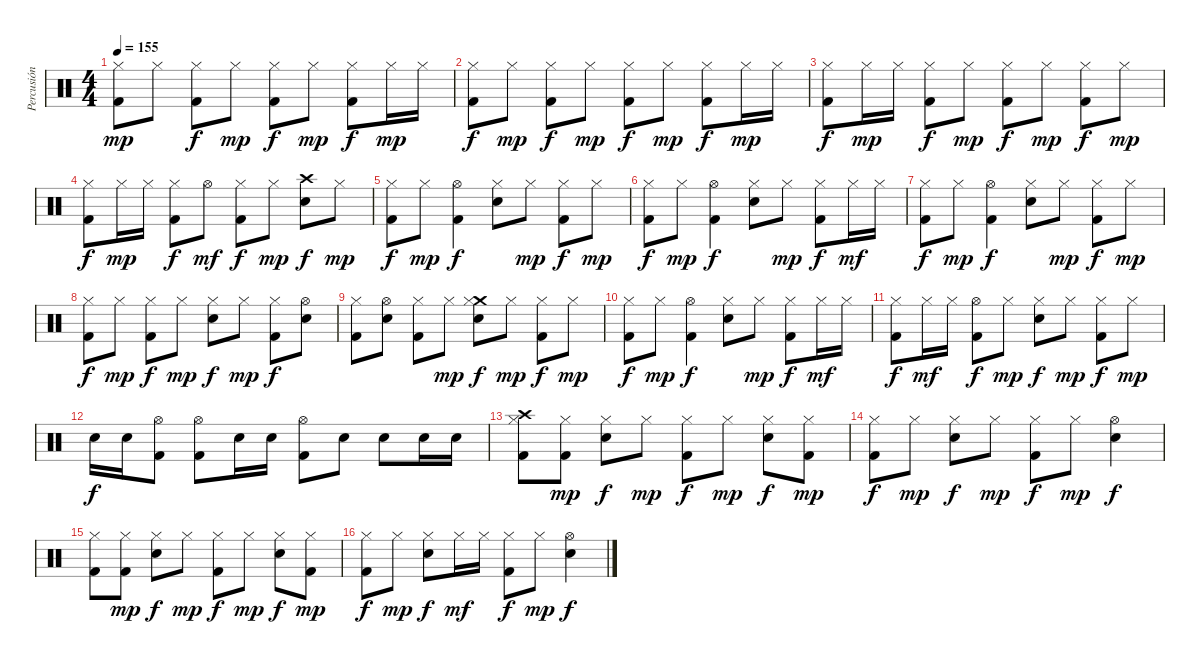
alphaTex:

\track ("Percusión" "Percusión") {instrument percussion}
\staff {score}
\articulation defaults
\ts (4 4)
\tempo 155
\clef neutral
\ks c
("Hi-Hat (closed)" "Kick (hit) 2").8{dy mp} "Hi-Hat (closed)".8 ("Hi-Hat (closed)" "Kick (hit) 2").8{dy f} "Hi-Hat (closed)".8{dy mp} ("Hi-Hat (closed)" "Kick (hit) 2").8{dy f} "Hi-Hat (closed)".8{dy mp} ("Hi-Hat (closed)" "Kick (hit) 2").8{dy f} "Hi-Hat (closed)".16{dy mp} "Hi-Hat (closed)".16 |
("Hi-Hat (closed)" "Kick (hit) 2").8{dy f} "Hi-Hat (closed)".8{dy mp} ("Hi-Hat (closed)" "Kick (hit) 2").8{dy f} "Hi-Hat (closed)".8{dy mp} ("Hi-Hat (closed)" "Kick (hit) 2").8{dy f} "Hi-Hat (closed)".8{dy mp} ("Hi-Hat (closed)" "Kick (hit) 2").8{dy f} "Hi-Hat (closed)".16{dy mp} "Hi-Hat (closed)".16 |
("Hi-Hat (closed)" "Kick (hit) 2").8{dy f} "Hi-Hat (closed)".16{dy mp} "Hi-Hat (closed)".16 ("Hi-Hat (closed)" "Kick (hit) 2").8{dy f} "Hi-Hat (closed)".8{dy mp} ("Hi-Hat (closed)" "Kick (hit) 2").8{dy f} "Hi-Hat (closed)".8{dy mp} ("Hi-Hat (closed)" "Kick (hit) 2").8{dy f} "Hi-Hat (closed)".8{dy mp} |
("Hi-Hat (closed)" "Kick (hit) 2").8{dy f} "Hi-Hat (closed)".16{dy mp} "Hi-Hat (closed)".16 ("Hi-Hat (closed)" "Kick (hit) 2").8{dy f} "Hi-Hat (open)".8{dy mf} ("Hi-Hat (closed)" "Kick (hit) 2").8{dy f} "Hi-Hat (closed)".8{dy mp} ("Crash high (hit)" "Snare (hit) 2").8{dy f} "Hi-Hat (closed)".8{dy mp} |
("Hi-Hat (closed)" "Kick (hit) 2").8{dy f} "Hi-Hat (closed)".8{dy mp} ("Hi-Hat (open)" "Kick (hit) 2").4{dy f} ("Hi-Hat (closed)" "Snare (hit) 2").8 "Hi-Hat (closed)".8{dy mp} ("Hi-Hat (closed)" "Kick (hit) 2").8{dy f} "Hi-Hat (closed)".8{dy mp} |
("Hi-Hat (closed)" "Kick (hit) 2").8{dy f} "Hi-Hat (closed)".8{dy mp} ("Hi-Hat (open)" "Kick (hit) 2").4{dy f} ("Hi-Hat (closed)" "Snare (hit) 2").8 "Hi-Hat (closed)".8{dy mp} ("Hi-Hat (closed)" "Kick (hit) 2").8{dy f} "Hi-Hat (closed)".16{dy mf} "Hi-Hat (closed)".16 |
("Hi-Hat (closed)" "Kick (hit) 2").8{dy f} "Hi-Hat (closed)".8{dy mp} ("Hi-Hat (open)" "Kick (hit) 2").4{dy f} ("Hi-Hat (closed)" "Snare (hit) 2").8 "Hi-Hat (closed)".8{dy mp} ("Hi-Hat (closed)" "Kick (hit) 2").8{dy f} "Hi-Hat (closed)".8{dy mp} |
("Hi-Hat (closed)" "Kick (hit) 2").8{dy f} "Hi-Hat (closed)".8{dy mp} ("Hi-Hat (closed)" "Kick (hit) 2").8{dy f} "Hi-Hat (closed)".8{dy mp} ("Hi-Hat (closed)" "Snare (hit) 2").8{dy f} "Hi-Hat (closed)".8{dy mp} ("Hi-Hat (closed)" "Kick (hit) 2").8{dy f} ("Hi-Hat (open)" "Snare (hit) 2").8 |
("Hi-Hat (closed)" "Kick (hit) 2").8 ("Hi-Hat (open)" "Snare (hit) 2").8 ("Hi-Hat (closed)" "Kick (hit) 2").8 "Hi-Hat (closed)".8{dy mp} ("Crash medium (hit)" "Hi-Hat (closed)" "Snare (hit) 2").8{dy f} "Hi-Hat (closed)".8{dy mp} ("Hi-Hat (closed)" "Kick (hit) 2").8{dy f} "Hi-Hat (closed)".8{dy mp} |
("Hi-Hat (closed)" "Kick (hit) 2").8{dy f} "Hi-Hat (closed)".8{dy mp} ("Hi-Hat (open)" "Kick (hit) 2").4{dy f} ("Hi-Hat (closed)" "Snare (hit) 2").8 "Hi-Hat (closed)".8{dy mp} ("Hi-Hat (closed)" "Kick (hit) 2").8{dy f} "Hi-Hat (closed)".16{dy mf} "Hi-Hat (closed)".16 |
("Hi-Hat (closed)" "Kick (hit) 2").8{dy f} "Hi-Hat (closed)".16{dy mf} "Hi-Hat (closed)".16 ("Hi-Hat (open)" "Kick (hit) 2").8{dy f} "Hi-Hat (closed)".8{dy mp} ("Hi-Hat (closed)" "Snare (hit) 2").8{dy f} "Hi-Hat (closed)".8{dy mp} ("Hi-Hat (closed)" "Kick (hit) 2").8{dy f} "Hi-Hat (closed)".8{dy mp} |
"Snare (hit) 2".16{dy f} "Snare (hit) 2".16 ("Hi-Hat (open)" "Kick (hit) 2").8 ("Hi-Hat (open)" "Kick (hit) 2").8 "Snare (hit) 2".16 "Snare (hit) 2".16 ("Hi-Hat (open)" "Kick (hit) 2").8 "Snare (hit) 2".8 "Snare (hit) 2".8 "Snare (hit) 2".16 "Snare (hit) 2".16 |
("Crash high (hit)" "Hi-Hat (closed)" "Kick (hit) 2").8 ("Hi-Hat (closed)" "Kick (hit) 2").8{dy mp} ("Hi-Hat (closed)" "Snare (hit) 2").8{dy f} "Hi-Hat (closed)".8{dy mp} ("Hi-Hat (closed)" "Kick (hit) 2").8{dy f} "Hi-Hat (closed)".8{dy mp} ("Hi-Hat (closed)" "Snare (hit) 2").8{dy f} ("Hi-Hat (closed)" "Kick (hit) 2").8{dy mp} |
("Hi-Hat (closed)" "Kick (hit) 2").8{dy f} "Hi-Hat (closed)".8{dy mp} ("Hi-Hat (closed)" "Snare (hit) 2").8{dy f} "Hi-Hat (closed)".8{dy mp} ("Hi-Hat (closed)" "Kick (hit) 2").8{dy f} "Hi-Hat (closed)".8{dy mp} ("Hi-Hat (open)" "Snare (hit) 2").4{dy f} |
("Hi-Hat (closed)" "Kick (hit) 2").8 ("Hi-Hat (closed)" "Kick (hit) 2").8{dy mp} ("Hi-Hat (closed)" "Snare (hit) 2").8{dy f} "Hi-Hat (closed)".8{dy mp} ("Hi-Hat (closed)" "Kick (hit) 2").8{dy f} "Hi-Hat (closed)".8{dy mp} ("Hi-Hat (closed)" "Snare (hit) 2").8{dy f} ("Hi-Hat (closed)" "Kick (hit) 2").8{dy mp} |
("Hi-Hat (closed)" "Kick (hit) 2").8{dy f} "Hi-Hat (closed)".8{dy mp} ("Hi-Hat (closed)" "Snare (hit) 2").8{dy f} "Hi-Hat (closed)".16{dy mf} "Hi-Hat (closed)".16 ("Hi-Hat (closed)" "Kick (hit) 2").8{dy f} "Hi-Hat (closed)".8{dy mp} ("Hi-Hat (open)" "Snare (hit) 2").4{dy f}
